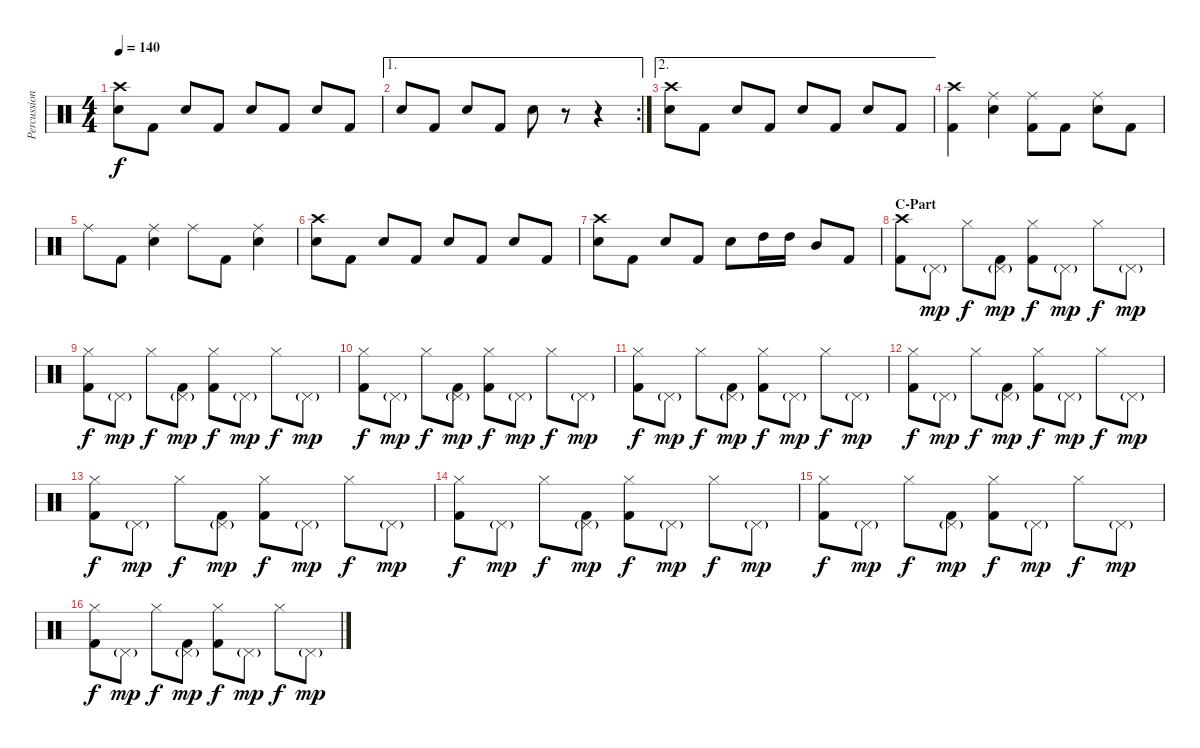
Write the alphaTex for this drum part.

\track ("Percussion" "Percussion") {instrument percussion}
\staff {score}
\articulation defaults
\ts (4 4)
\tempo 140
\clef neutral
\ks c
("Snare (hit) 2" "Crash high (hit)").8{dy f} "Kick (hit) 2".8 "Snare (hit) 2".8 "Kick (hit) 2".8 "Snare (hit) 2".8 "Kick (hit) 2".8 "Snare (hit) 2".8 "Kick (hit) 2".8 |
\ae 1
\rc 2 "Snare (hit) 2".8 "Kick (hit) 2".8 "Snare (hit) 2".8 "Kick (hit) 2".8 "Snare (hit) 2".8
r.8 r.4 |
\ae 2
("Snare (hit) 2" "Crash high (hit)").8 "Kick (hit) 2".8 "Snare (hit) 2".8 "Kick (hit) 2".8 "Snare (hit) 2".8 "Kick (hit) 2".8 "Snare (hit) 2".8 "Kick (hit) 2".8 |
("Kick (hit) 2" "Crash high (hit)").4 ("Snare (hit) 2" "Ride (middle)").4 ("Kick (hit) 2" "Ride (middle)").8 "Kick (hit) 2".8 ("Snare (hit) 2" "Ride (middle)").8 "Kick (hit) 2".8 |
"Ride (middle)".8 "Kick (hit) 2".8 ("Snare (hit) 2" "Ride (middle)").4 "Ride (middle)".8 "Kick (hit) 2".8 ("Snare (hit) 2" "Ride (middle)").4 |
("Snare (hit) 2" "Crash high (hit)").8 "Kick (hit) 2".8 "Snare (hit) 2".8 "Kick (hit) 2".8 "Snare (hit) 2".8 "Kick (hit) 2".8 "Snare (hit) 2".8 "Kick (hit) 2".8 |
("Snare (hit) 2" "Crash high (hit)").8 "Kick (hit) 2".8 "Snare (hit) 2".8 "Kick (hit) 2".8 "Snare (hit) 2".8 "High Tom (hit)".16 "High Tom (hit)".16 "Mid Tom (hit)".8 "Kick (hit) 2".8 |
\section ("" "C-Part")
("Kick (hit) 2" "Crash high (hit)").8 "Pedal Hi-Hat (hit)"{g}.8{dy mp} "Hi-Hat (closed)".8{dy f} ("Kick (hit) 2" "Pedal Hi-Hat (hit)"{g}).8{dy mp} ("Kick (hit) 2" "Hi-Hat (closed)").8{dy f} "Pedal Hi-Hat (hit)"{g}.8{dy mp} "Hi-Hat (closed)".8{dy f} "Pedal Hi-Hat (hit)"{g}.8{dy mp} |
("Kick (hit) 2" "Hi-Hat (closed)").8{dy f} "Pedal Hi-Hat (hit)"{g}.8{dy mp} "Hi-Hat (closed)".8{dy f} ("Kick (hit) 2" "Pedal Hi-Hat (hit)"{g}).8{dy mp} ("Kick (hit) 2" "Hi-Hat (closed)").8{dy f} "Pedal Hi-Hat (hit)"{g}.8{dy mp} "Hi-Hat (closed)".8{dy f} "Pedal Hi-Hat (hit)"{g}.8{dy mp} |
("Kick (hit) 2" "Hi-Hat (closed)").8{dy f} "Pedal Hi-Hat (hit)"{g}.8{dy mp} "Hi-Hat (closed)".8{dy f} ("Kick (hit) 2" "Pedal Hi-Hat (hit)"{g}).8{dy mp} ("Kick (hit) 2" "Hi-Hat (closed)").8{dy f} "Pedal Hi-Hat (hit)"{g}.8{dy mp} "Hi-Hat (closed)".8{dy f} "Pedal Hi-Hat (hit)"{g}.8{dy mp} |
("Kick (hit) 2" "Hi-Hat (closed)").8{dy f} "Pedal Hi-Hat (hit)"{g}.8{dy mp} "Hi-Hat (closed)".8{dy f} ("Kick (hit) 2" "Pedal Hi-Hat (hit)"{g}).8{dy mp} ("Kick (hit) 2" "Hi-Hat (closed)").8{dy f} "Pedal Hi-Hat (hit)"{g}.8{dy mp} "Hi-Hat (closed)".8{dy f} "Pedal Hi-Hat (hit)"{g}.8{dy mp} |
("Kick (hit) 2" "Hi-Hat (closed)").8{dy f} "Pedal Hi-Hat (hit)"{g}.8{dy mp} "Hi-Hat (closed)".8{dy f} ("Kick (hit) 2" "Pedal Hi-Hat (hit)"{g}).8{dy mp} ("Kick (hit) 2" "Hi-Hat (closed)").8{dy f} "Pedal Hi-Hat (hit)"{g}.8{dy mp} "Hi-Hat (closed)".8{dy f} "Pedal Hi-Hat (hit)"{g}.8{dy mp} |
("Kick (hit) 2" "Hi-Hat (closed)").8{dy f} "Pedal Hi-Hat (hit)"{g}.8{dy mp} "Hi-Hat (closed)".8{dy f} ("Kick (hit) 2" "Pedal Hi-Hat (hit)"{g}).8{dy mp} ("Kick (hit) 2" "Hi-Hat (closed)").8{dy f} "Pedal Hi-Hat (hit)"{g}.8{dy mp} "Hi-Hat (closed)".8{dy f} "Pedal Hi-Hat (hit)"{g}.8{dy mp} |
("Kick (hit) 2" "Hi-Hat (closed)").8{dy f} "Pedal Hi-Hat (hit)"{g}.8{dy mp} "Hi-Hat (closed)".8{dy f} ("Kick (hit) 2" "Pedal Hi-Hat (hit)"{g}).8{dy mp} ("Kick (hit) 2" "Hi-Hat (closed)").8{dy f} "Pedal Hi-Hat (hit)"{g}.8{dy mp} "Hi-Hat (closed)".8{dy f} "Pedal Hi-Hat (hit)"{g}.8{dy mp} |
("Kick (hit) 2" "Hi-Hat (closed)").8{dy f} "Pedal Hi-Hat (hit)"{g}.8{dy mp} "Hi-Hat (closed)".8{dy f} ("Kick (hit) 2" "Pedal Hi-Hat (hit)"{g}).8{dy mp} ("Kick (hit) 2" "Hi-Hat (closed)").8{dy f} "Pedal Hi-Hat (hit)"{g}.8{dy mp} "Hi-Hat (closed)".8{dy f} "Pedal Hi-Hat (hit)"{g}.8{dy mp} |
("Kick (hit) 2" "Hi-Hat (closed)").8{dy f} "Pedal Hi-Hat (hit)"{g}.8{dy mp} "Hi-Hat (closed)".8{dy f} ("Kick (hit) 2" "Pedal Hi-Hat (hit)"{g}).8{dy mp} ("Kick (hit) 2" "Hi-Hat (closed)").8{dy f} "Pedal Hi-Hat (hit)"{g}.8{dy mp} "Hi-Hat (closed)".8{dy f} "Pedal Hi-Hat (hit)"{g}.8{dy mp}
